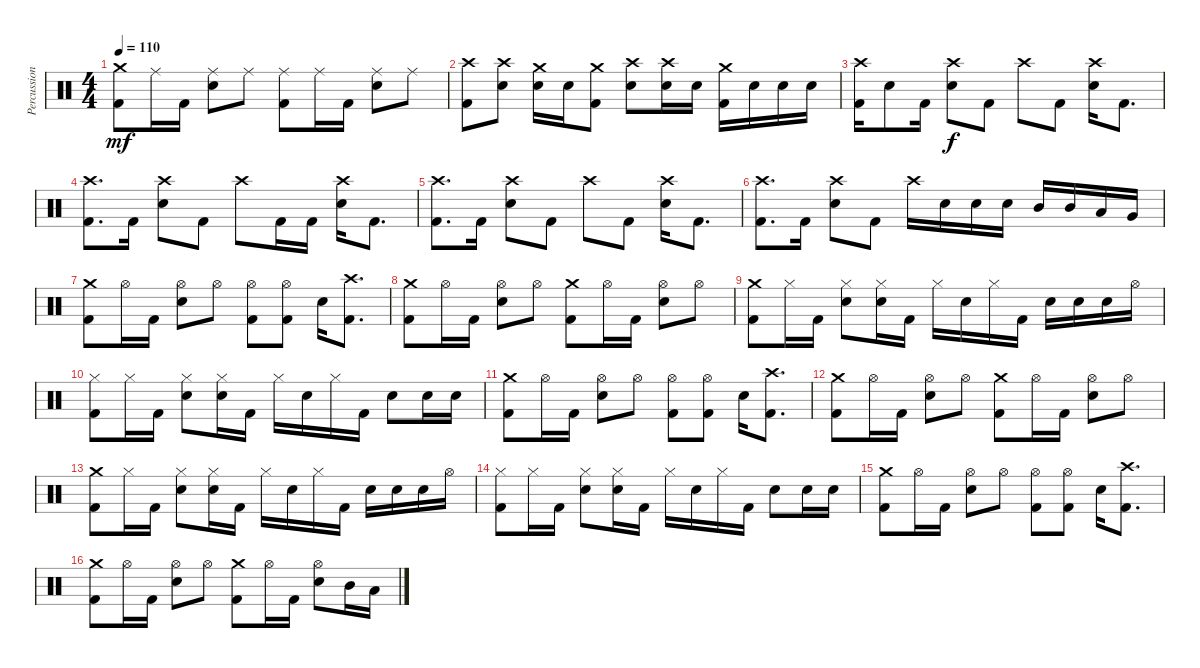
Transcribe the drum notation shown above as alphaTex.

\track ("Percussion" "Percussion") {instrument percussion}
\staff {score}
\articulation defaults
\ts (4 4)
\tempo 110
\clef neutral
\ks c
("Crash medium (hit)" "Kick (hit) 2").8{dy mf} "Ride (middle)".16 "Kick (hit) 2".16 ("Ride (middle)" "Electric Snare (hit)").8 "Ride (middle)".8 ("Ride (middle)" "Kick (hit) 2").8 "Ride (middle)".16 "Kick (hit) 2".16 ("Ride (middle)" "Electric Snare (hit)").8 "Ride (middle)".8 |
("Crash high (hit)" "Kick (hit) 2").8 ("Crash high (hit)" "Electric Snare (hit)").8 ("Crash medium (hit)" "Electric Snare (hit)").16 "Electric Snare (hit)".16 ("Crash medium (hit)" "Kick (hit) 2").8 ("Crash high (hit)" "Electric Snare (hit)").8 ("Crash high (hit)" "Electric Snare (hit)").16 "Electric Snare (hit)".16 ("Crash medium (hit)" "Kick (hit) 2").16 "Electric Snare (hit)".16 "Electric Snare (hit)".16 "Electric Snare (hit)".16 |
("Crash high (hit)" "Kick (hit) 2").16 "Electric Snare (hit)".8 "Kick (hit) 2".16 ("Crash high (hit)" "Electric Snare (hit)").8{dy f} "Kick (hit) 2".8 "Crash high (hit)".8 "Kick (hit) 2".8 ("Crash high (hit)" "Electric Snare (hit)").16 "Kick (hit) 2".8{d} |
("Crash high (hit)" "Kick (hit) 2").8{d} "Kick (hit) 2".16 ("Crash high (hit)" "Electric Snare (hit)").8 "Kick (hit) 2".8 "Crash high (hit)".8 "Kick (hit) 2".16 "Kick (hit) 2".16 ("Crash high (hit)" "Electric Snare (hit)").16 "Kick (hit) 2".8{d} |
("Crash high (hit)" "Kick (hit) 2").8{d} "Kick (hit) 2".16 ("Crash high (hit)" "Electric Snare (hit)").8 "Kick (hit) 2".8 "Crash high (hit)".8 "Kick (hit) 2".8 ("Crash high (hit)" "Electric Snare (hit)").16 "Kick (hit) 2".8{d} |
("Crash high (hit)" "Kick (hit) 2").8{d} "Kick (hit) 2".16 ("Crash high (hit)" "Electric Snare (hit)").8 "Kick (hit) 2".8 "Crash high (hit)".16 "Electric Snare (hit)".16 "Electric Snare (hit)".16 "Electric Snare (hit)".16 "Mid Tom (hit)".16 "Mid Tom (hit)".16 "Low Tom (hit)".16 "Very Low Tom (hit)".16 |
("Crash medium (hit)" "Kick (hit) 2").8 "Hi-Hat (open)".16 "Kick (hit) 2".16 ("Hi-Hat (open)" "Electric Snare (hit)").8 "Hi-Hat (open)".8 ("Hi-Hat (open)" "Kick (hit) 2").8 ("Hi-Hat (open)" "Kick (hit) 2").8 "Electric Snare (hit)".16 ("Crash high (hit)" "Kick (hit) 2").8{d} |
("Crash medium (hit)" "Kick (hit) 2").8 "Hi-Hat (open)".16 "Kick (hit) 2".16 ("Hi-Hat (open)" "Electric Snare (hit)").8 "Hi-Hat (open)".8 ("Crash medium (hit)" "Kick (hit) 2").8 "Hi-Hat (open)".16 "Kick (hit) 2".16 ("Hi-Hat (open)" "Electric Snare (hit)").8 "Hi-Hat (open)".8 |
("Crash medium (hit)" "Kick (hit) 2").8 "Hi-Hat (closed)".16 "Kick (hit) 2".16 ("Hi-Hat (closed)" "Electric Snare (hit)").8 ("Hi-Hat (closed)" "Electric Snare (hit)").16 "Kick (hit) 2".16 "Hi-Hat (closed)".16 "Electric Snare (hit)".16 "Hi-Hat (closed)".16 "Kick (hit) 2".16 "Electric Snare (hit)".16 "Electric Snare (hit)".16 "Electric Snare (hit)".16 "Hi-Hat (open)".16 |
("Hi-Hat (closed)" "Kick (hit) 2").8 "Hi-Hat (closed)".16 "Kick (hit) 2".16 ("Hi-Hat (closed)" "Electric Snare (hit)").8 ("Hi-Hat (closed)" "Electric Snare (hit)").16 "Kick (hit) 2".16 "Hi-Hat (closed)".16 "Electric Snare (hit)".16 "Hi-Hat (closed)".16 "Kick (hit) 2".16 "Electric Snare (hit)".8 "Electric Snare (hit)".16 "Electric Snare (hit)".16 |
("Crash medium (hit)" "Kick (hit) 2").8 "Hi-Hat (open)".16 "Kick (hit) 2".16 ("Hi-Hat (open)" "Electric Snare (hit)").8 "Hi-Hat (open)".8 ("Hi-Hat (open)" "Kick (hit) 2").8 ("Hi-Hat (open)" "Kick (hit) 2").8 "Electric Snare (hit)".16 ("Crash high (hit)" "Kick (hit) 2").8{d} |
("Crash medium (hit)" "Kick (hit) 2").8 "Hi-Hat (open)".16 "Kick (hit) 2".16 ("Hi-Hat (open)" "Electric Snare (hit)").8 "Hi-Hat (open)".8 ("Crash medium (hit)" "Kick (hit) 2").8 "Hi-Hat (open)".16 "Kick (hit) 2".16 ("Hi-Hat (open)" "Electric Snare (hit)").8 "Hi-Hat (open)".8 |
("Crash medium (hit)" "Kick (hit) 2").8 "Hi-Hat (closed)".16 "Kick (hit) 2".16 ("Hi-Hat (closed)" "Electric Snare (hit)").8 ("Hi-Hat (closed)" "Electric Snare (hit)").16 "Kick (hit) 2".16 "Hi-Hat (closed)".16 "Electric Snare (hit)".16 "Hi-Hat (closed)".16 "Kick (hit) 2".16 "Electric Snare (hit)".16 "Electric Snare (hit)".16 "Electric Snare (hit)".16 "Hi-Hat (open)".16 |
("Hi-Hat (closed)" "Kick (hit) 2").8 "Hi-Hat (closed)".16 "Kick (hit) 2".16 ("Hi-Hat (closed)" "Electric Snare (hit)").8 ("Hi-Hat (closed)" "Electric Snare (hit)").16 "Kick (hit) 2".16 "Hi-Hat (closed)".16 "Electric Snare (hit)".16 "Hi-Hat (closed)".16 "Kick (hit) 2".16 "Electric Snare (hit)".8 "Electric Snare (hit)".16 "Electric Snare (hit)".16 |
("Crash medium (hit)" "Kick (hit) 2").8 "Hi-Hat (open)".16 "Kick (hit) 2".16 ("Hi-Hat (open)" "Electric Snare (hit)").8 "Hi-Hat (open)".8 ("Hi-Hat (open)" "Kick (hit) 2").8 ("Hi-Hat (open)" "Kick (hit) 2").8 "Electric Snare (hit)".16 ("Crash high (hit)" "Kick (hit) 2").8{d} |
("Crash medium (hit)" "Kick (hit) 2").8 "Hi-Hat (open)".16 "Kick (hit) 2".16 ("Hi-Hat (open)" "Electric Snare (hit)").8 "Hi-Hat (open)".8 ("Crash medium (hit)" "Kick (hit) 2").8 "Hi-Hat (open)".16 "Kick (hit) 2".16 ("Hi-Hat (open)" "Electric Snare (hit)").8 "Mid Tom (hit)".16 "Low Tom (hit)".16
